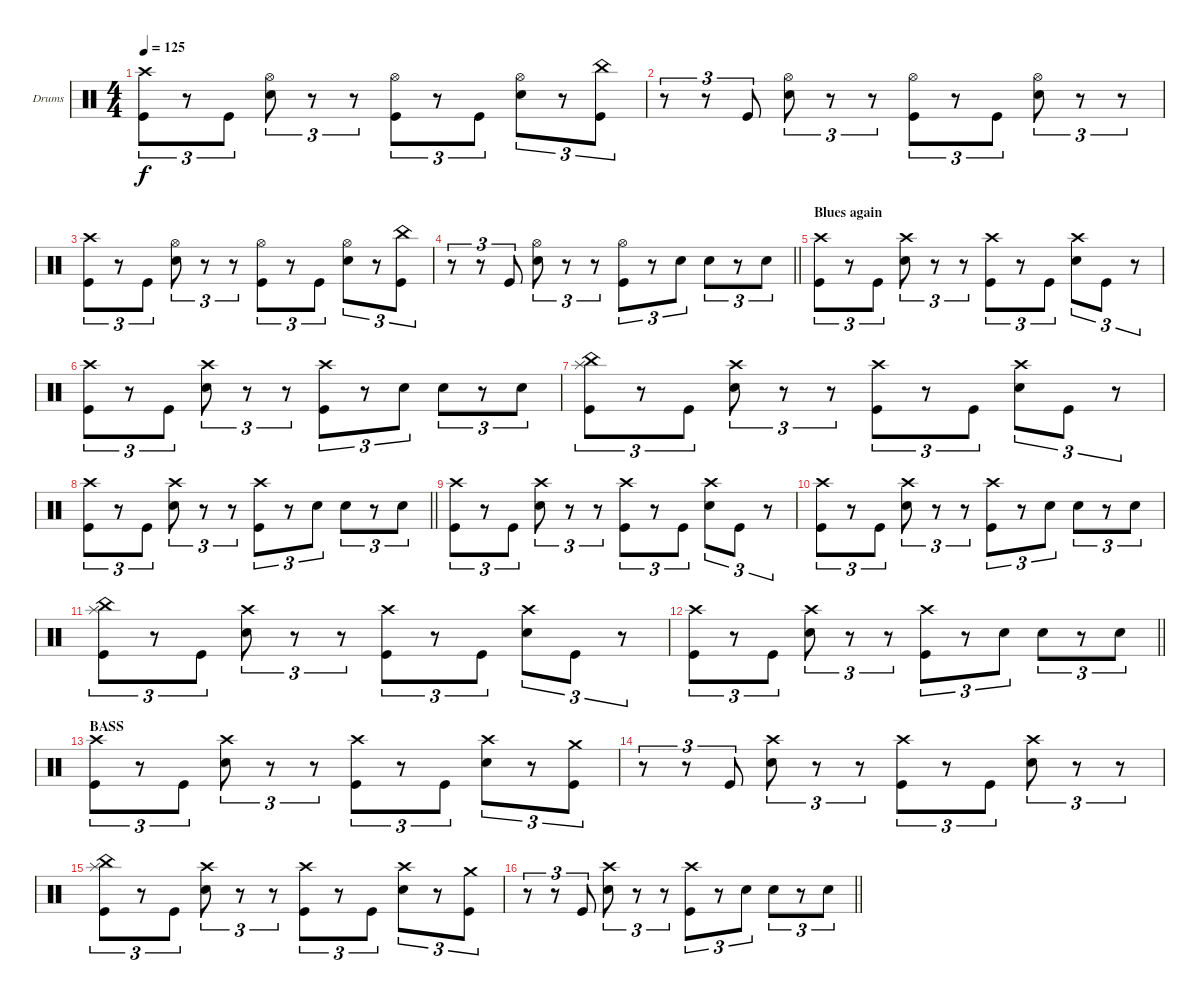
\bracketExtendMode groupsimilarinstruments
\firstSystemTrackNameOrientation horizontal
\otherSystemsTrackNameOrientation horizontal
\track ("Drumkit" "Drums") {instrument percussion}
\staff {score}
\articulation defaults
\ts (4 4)
\tempo 125
\clef neutral
\ks c
("Crash high (hit)" "Kick (hit)").8{tu (3 2) dy f} r.8{tu (3 2)} "Kick (hit)".8{tu (3 2)} ("Hi-Hat (open)" "Snare (hit) 2").8{tu (3 2)} r.8{tu (3 2)} r.8{tu (3 2)} ("Hi-Hat (open)" "Kick (hit)").8{tu (3 2)} r.8{tu (3 2)} "Kick (hit)".8{tu (3 2)} ("Hi-Hat (open)" "Snare (hit) 2").8{tu (3 2)} r.8{tu (3 2)} ("China (hit)" "Kick (hit)").8{tu (3 2)} |
r.8{tu (3 2)} r.8{tu (3 2)} "Kick (hit)".8{tu (3 2)} ("Hi-Hat (open)" "Snare (hit) 2").8{tu (3 2)} r.8{tu (3 2)} r.8{tu (3 2)} ("Hi-Hat (open)" "Kick (hit)").8{tu (3 2)} r.8{tu (3 2)} "Kick (hit)".8{tu (3 2)} ("Hi-Hat (open)" "Snare (hit) 2").8{tu (3 2)} r.8{tu (3 2)} r.8{tu (3 2)} |
("Crash high (hit)" "Kick (hit)").8{tu (3 2)} r.8{tu (3 2)} "Kick (hit)".8{tu (3 2)} ("Hi-Hat (open)" "Snare (hit) 2").8{tu (3 2)} r.8{tu (3 2)} r.8{tu (3 2)} ("Hi-Hat (open)" "Kick (hit)").8{tu (3 2)} r.8{tu (3 2)} "Kick (hit)".8{tu (3 2)} ("Hi-Hat (open)" "Snare (hit) 2").8{tu (3 2)} r.8{tu (3 2)} ("China (hit)" "Kick (hit)").8{tu (3 2)} |
\barLineRight lightlight
r.8{tu (3 2)} r.8{tu (3 2)} "Kick (hit)".8{tu (3 2)} ("Hi-Hat (open)" "Snare (hit) 2").8{tu (3 2)} r.8{tu (3 2)} r.8{tu (3 2)} ("Hi-Hat (open)" "Kick (hit)").8{tu (3 2)} r.8{tu (3 2)} "Snare (hit) 2".8{tu (3 2)} "Snare (hit) 2".8{tu (3 2)} r.8{tu (3 2)} "Snare (hit) 2".8{tu (3 2)} |
\section ("" "Blues again")
("Crash high (hit)" "Kick (hit)").8{tu (3 2)} r.8{tu (3 2)} "Kick (hit)".8{tu (3 2)} ("Crash high (hit)" "Snare (hit) 2").8{tu (3 2)} r.8{tu (3 2)} r.8{tu (3 2)} ("Crash high (hit)" "Kick (hit)").8{tu (3 2)} r.8{tu (3 2)} "Kick (hit)".8{tu (3 2)} ("Crash high (hit)" "Snare (hit) 2").8{tu (3 2)} "Kick (hit)".8{tu (3 2)} r.8{tu (3 2)} |
("Crash high (hit)" "Kick (hit)").8{tu (3 2)} r.8{tu (3 2)} "Kick (hit)".8{tu (3 2)} ("Crash high (hit)" "Snare (hit) 2").8{tu (3 2)} r.8{tu (3 2)} r.8{tu (3 2)} ("Crash high (hit)" "Kick (hit)").8{tu (3 2)} r.8{tu (3 2)} "Snare (hit) 2".8{tu (3 2)} "Snare (hit) 2".8{tu (3 2)} r.8{tu (3 2)} "Snare (hit) 2".8{tu (3 2)} |
("Splash (hit)" "China (hit)" "Kick (hit)").8{tu (3 2)} r.8{tu (3 2)} "Kick (hit)".8{tu (3 2)} ("Crash high (hit)" "Snare (hit) 2").8{tu (3 2)} r.8{tu (3 2)} r.8{tu (3 2)} ("Crash high (hit)" "Kick (hit)").8{tu (3 2)} r.8{tu (3 2)} "Kick (hit)".8{tu (3 2)} ("Crash high (hit)" "Snare (hit) 2").8{tu (3 2)} "Kick (hit)".8{tu (3 2)} r.8{tu (3 2)} |
\barLineRight lightlight
("Crash high (hit)" "Kick (hit)").8{tu (3 2)} r.8{tu (3 2)} "Kick (hit)".8{tu (3 2)} ("Crash high (hit)" "Snare (hit) 2").8{tu (3 2)} r.8{tu (3 2)} r.8{tu (3 2)} ("Crash high (hit)" "Kick (hit)").8{tu (3 2)} r.8{tu (3 2)} "Snare (hit) 2".8{tu (3 2)} "Snare (hit) 2".8{tu (3 2)} r.8{tu (3 2)} "Snare (hit) 2".8{tu (3 2)} |
("Crash high (hit)" "Kick (hit)").8{tu (3 2)} r.8{tu (3 2)} "Kick (hit)".8{tu (3 2)} ("Crash high (hit)" "Snare (hit) 2").8{tu (3 2)} r.8{tu (3 2)} r.8{tu (3 2)} ("Crash high (hit)" "Kick (hit)").8{tu (3 2)} r.8{tu (3 2)} "Kick (hit)".8{tu (3 2)} ("Crash high (hit)" "Snare (hit) 2").8{tu (3 2)} "Kick (hit)".8{tu (3 2)} r.8{tu (3 2)} |
("Crash high (hit)" "Kick (hit)").8{tu (3 2)} r.8{tu (3 2)} "Kick (hit)".8{tu (3 2)} ("Crash high (hit)" "Snare (hit) 2").8{tu (3 2)} r.8{tu (3 2)} r.8{tu (3 2)} ("Crash high (hit)" "Kick (hit)").8{tu (3 2)} r.8{tu (3 2)} "Snare (hit) 2".8{tu (3 2)} "Snare (hit) 2".8{tu (3 2)} r.8{tu (3 2)} "Snare (hit) 2".8{tu (3 2)} |
("Splash (hit)" "China (hit)" "Kick (hit)").8{tu (3 2)} r.8{tu (3 2)} "Kick (hit)".8{tu (3 2)} ("Crash high (hit)" "Snare (hit) 2").8{tu (3 2)} r.8{tu (3 2)} r.8{tu (3 2)} ("Crash high (hit)" "Kick (hit)").8{tu (3 2)} r.8{tu (3 2)} "Kick (hit)".8{tu (3 2)} ("Crash high (hit)" "Snare (hit) 2").8{tu (3 2)} "Kick (hit)".8{tu (3 2)} r.8{tu (3 2)} |
\barLineRight lightlight
("Crash high (hit)" "Kick (hit)").8{tu (3 2)} r.8{tu (3 2)} "Kick (hit)".8{tu (3 2)} ("Crash high (hit)" "Snare (hit) 2").8{tu (3 2)} r.8{tu (3 2)} r.8{tu (3 2)} ("Crash high (hit)" "Kick (hit)").8{tu (3 2)} r.8{tu (3 2)} "Snare (hit) 2".8{tu (3 2)} "Snare (hit) 2".8{tu (3 2)} r.8{tu (3 2)} "Snare (hit) 2".8{tu (3 2)} |
\section ("" "BASS")
("Crash high (hit)" "Kick (hit)").8{tu (3 2)} r.8{tu (3 2)} "Kick (hit)".8{tu (3 2)} ("Crash high (hit)" "Snare (hit) 2").8{tu (3 2)} r.8{tu (3 2)} r.8{tu (3 2)} ("Crash high (hit)" "Kick (hit)").8{tu (3 2)} r.8{tu (3 2)} "Kick (hit)".8{tu (3 2)} ("Crash high (hit)" "Snare (hit) 2").8{tu (3 2)} r.8{tu (3 2)} ("Crash medium (hit)" "Kick (hit)").8{tu (3 2)} |
r.8{tu (3 2)} r.8{tu (3 2)} "Kick (hit)".8{tu (3 2)} ("Crash high (hit)" "Snare (hit) 2").8{tu (3 2)} r.8{tu (3 2)} r.8{tu (3 2)} ("Crash high (hit)" "Kick (hit)").8{tu (3 2)} r.8{tu (3 2)} "Kick (hit)".8{tu (3 2)} ("Crash high (hit)" "Snare (hit) 2").8{tu (3 2)} r.8{tu (3 2)} r.8{tu (3 2)} |
("Splash (hit)" "China (hit)" "Kick (hit)").8{tu (3 2)} r.8{tu (3 2)} "Kick (hit)".8{tu (3 2)} ("Crash high (hit)" "Snare (hit) 2").8{tu (3 2)} r.8{tu (3 2)} r.8{tu (3 2)} ("Crash high (hit)" "Kick (hit)").8{tu (3 2)} r.8{tu (3 2)} "Kick (hit)".8{tu (3 2)} ("Crash high (hit)" "Snare (hit) 2").8{tu (3 2)} r.8{tu (3 2)} ("Crash medium (hit)" "Kick (hit)").8{tu (3 2)} |
\barLineRight lightlight
r.8{tu (3 2)} r.8{tu (3 2)} "Kick (hit)".8{tu (3 2)} ("Crash high (hit)" "Snare (hit) 2").8{tu (3 2)} r.8{tu (3 2)} r.8{tu (3 2)} ("Crash high (hit)" "Kick (hit)").8{tu (3 2)} r.8{tu (3 2)} "Snare (hit) 2".8{tu (3 2)} "Snare (hit) 2".8{tu (3 2)} r.8{tu (3 2)} "Snare (hit) 2".8{tu (3 2)}
